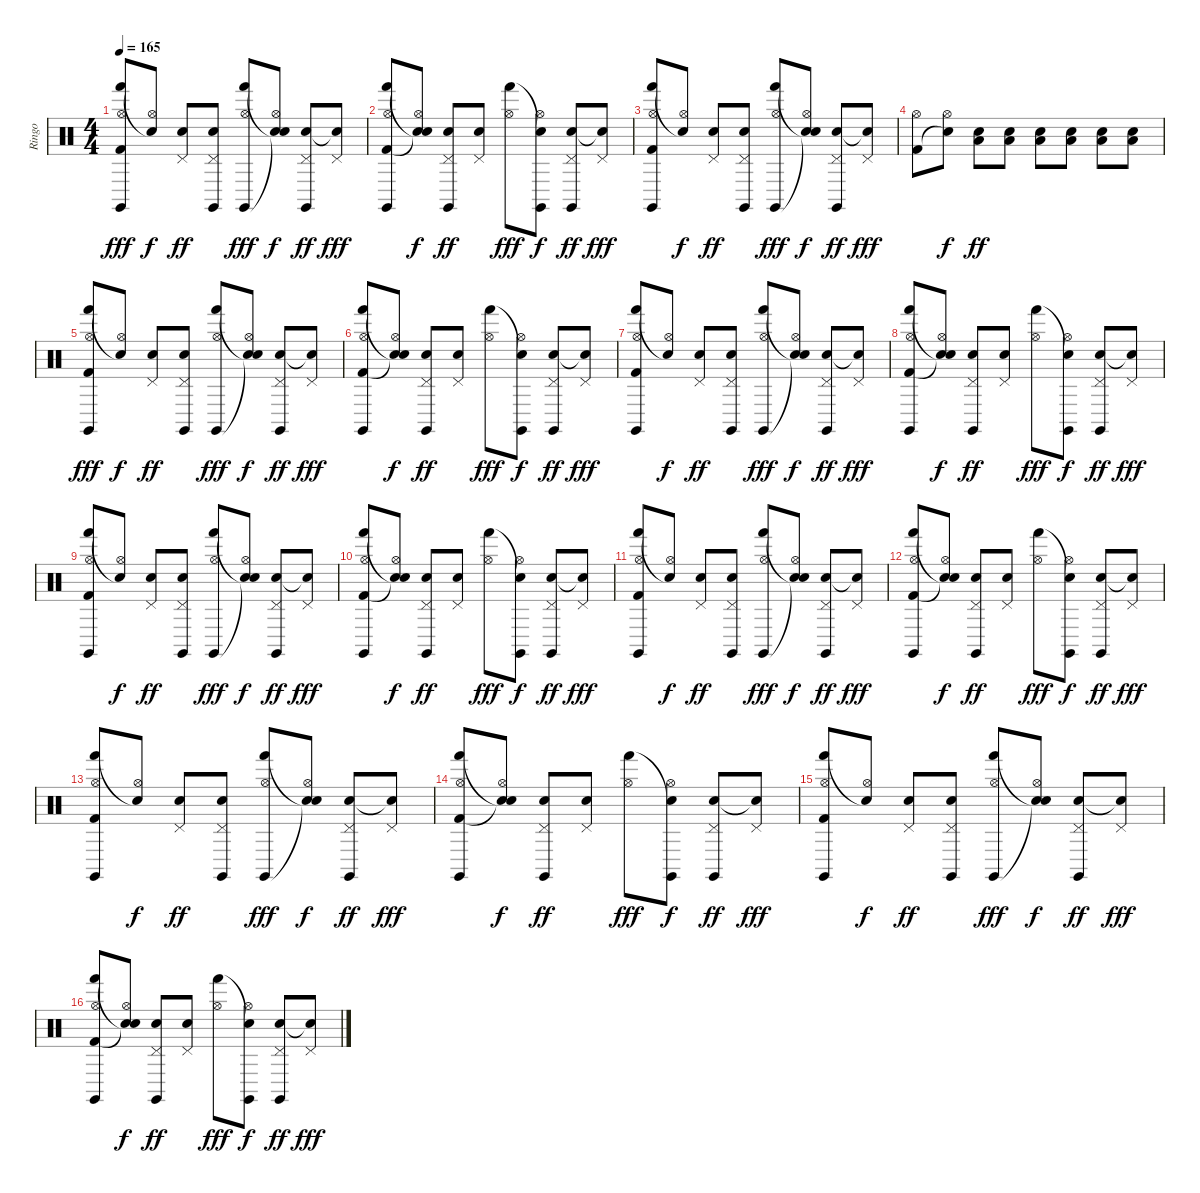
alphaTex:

\track ("Ringo" "Ringo") {instrument percussion}
\staff {score}
\articulation defaults
\ts (4 4)
\tempo 165
\clef neutral
\ks c
("Hand (hit)" "Hi-Hat (open)" "Kick (hit) 2" "Claves (hit)").8{dy fff} ("Snare (hit)"{t} "Hi-Hat (open)").8{dy f} ("Pedal Hi-Hat (hit)" "Snare (hit) 2").8{dy ff} ("Pedal Hi-Hat (hit)" "Snare (hit) 2" "Claves (hit)").8 ("Hand (hit)" "Hi-Hat (open)" "Claves (hit)").8{dy fff} ("Snare (hit)"{t} "Hi-Hat (open)" "Snare (hit)"{t}).8{dy f} ("Pedal Hi-Hat (hit)" "Snare (hit) 2" "Claves (hit)").8{dy ff} ("Pedal Hi-Hat (hit)" "Snare (hit)"{t}).8{dy fff} |
("Hand (hit)" "Hi-Hat (open)" "Kick (hit) 2" "Claves (hit)").8 ("Snare (hit)"{t} "Hi-Hat (open)" "Snare (hit)"{t}).8{dy f} ("Pedal Hi-Hat (hit)" "Snare (hit) 2" "Claves (hit)").8{dy ff} ("Pedal Hi-Hat (hit)" "Snare (hit) 2").8 ("Hand (hit)" "Hi-Hat (open)").8{dy fff} ("Snare (hit)"{t} "Hi-Hat (open)" "Claves (hit)").8{dy f} ("Pedal Hi-Hat (hit)" "Snare (hit) 2" "Claves (hit)").8{dy ff} ("Pedal Hi-Hat (hit)" "Snare (hit)"{t}).8{dy fff} |
("Hand (hit)" "Hi-Hat (open)" "Kick (hit) 2" "Claves (hit)").8 ("Snare (hit)"{t} "Hi-Hat (open)").8{dy f} ("Pedal Hi-Hat (hit)" "Snare (hit) 2").8{dy ff} ("Pedal Hi-Hat (hit)" "Snare (hit) 2" "Claves (hit)").8 ("Hand (hit)" "Hi-Hat (open)" "Claves (hit)").8{dy fff} ("Snare (hit)"{t} "Hi-Hat (open)" "Snare (hit)"{t}).8{dy f} ("Pedal Hi-Hat (hit)" "Snare (hit) 2" "Claves (hit)").8{dy ff} ("Pedal Hi-Hat (hit)" "Snare (hit)"{t}).8{dy fff} |
("Hi-Hat (open)" "Kick (hit) 2").8 ("Hi-Hat (open)" "Snare (hit)"{t}).8{dy f} ("Snare (hit) 2" "Low Tom (hit)").8{dy ff} ("Snare (hit) 2" "Low Tom (hit)").8 ("Snare (hit) 2" "Low Tom (hit)").8 ("Snare (hit) 2" "Low Tom (hit)").8 ("Snare (hit) 2" "Low Tom (hit)").8 ("Snare (hit) 2" "Low Tom (hit)").8 |
("Hand (hit)" "Hi-Hat (open)" "Kick (hit) 2" "Claves (hit)").8{dy fff} ("Snare (hit)"{t} "Hi-Hat (open)").8{dy f} ("Pedal Hi-Hat (hit)" "Snare (hit) 2").8{dy ff} ("Pedal Hi-Hat (hit)" "Snare (hit) 2" "Claves (hit)").8 ("Hand (hit)" "Hi-Hat (open)" "Claves (hit)").8{dy fff} ("Snare (hit)"{t} "Hi-Hat (open)" "Snare (hit)"{t}).8{dy f} ("Pedal Hi-Hat (hit)" "Snare (hit) 2" "Claves (hit)").8{dy ff} ("Pedal Hi-Hat (hit)" "Snare (hit)"{t}).8{dy fff} |
("Hand (hit)" "Hi-Hat (open)" "Kick (hit) 2" "Claves (hit)").8 ("Snare (hit)"{t} "Hi-Hat (open)" "Snare (hit)"{t}).8{dy f} ("Pedal Hi-Hat (hit)" "Snare (hit) 2" "Claves (hit)").8{dy ff} ("Pedal Hi-Hat (hit)" "Snare (hit) 2").8 ("Hand (hit)" "Hi-Hat (open)").8{dy fff} ("Snare (hit)"{t} "Hi-Hat (open)" "Claves (hit)").8{dy f} ("Pedal Hi-Hat (hit)" "Snare (hit) 2" "Claves (hit)").8{dy ff} ("Pedal Hi-Hat (hit)" "Snare (hit)"{t}).8{dy fff} |
("Hand (hit)" "Hi-Hat (open)" "Kick (hit) 2" "Claves (hit)").8 ("Snare (hit)"{t} "Hi-Hat (open)").8{dy f} ("Pedal Hi-Hat (hit)" "Snare (hit) 2").8{dy ff} ("Pedal Hi-Hat (hit)" "Snare (hit) 2" "Claves (hit)").8 ("Hand (hit)" "Hi-Hat (open)" "Claves (hit)").8{dy fff} ("Snare (hit)"{t} "Hi-Hat (open)" "Snare (hit)"{t}).8{dy f} ("Pedal Hi-Hat (hit)" "Snare (hit) 2" "Claves (hit)").8{dy ff} ("Pedal Hi-Hat (hit)" "Snare (hit)"{t}).8{dy fff} |
("Hand (hit)" "Hi-Hat (open)" "Kick (hit) 2" "Claves (hit)").8 ("Snare (hit)"{t} "Hi-Hat (open)" "Snare (hit)"{t}).8{dy f} ("Pedal Hi-Hat (hit)" "Snare (hit) 2" "Claves (hit)").8{dy ff} ("Pedal Hi-Hat (hit)" "Snare (hit) 2").8 ("Hand (hit)" "Hi-Hat (open)").8{dy fff} ("Snare (hit)"{t} "Hi-Hat (open)" "Claves (hit)").8{dy f} ("Pedal Hi-Hat (hit)" "Snare (hit) 2" "Claves (hit)").8{dy ff} ("Pedal Hi-Hat (hit)" "Snare (hit)"{t}).8{dy fff} |
("Hand (hit)" "Hi-Hat (open)" "Kick (hit) 2" "Claves (hit)").8 ("Snare (hit)"{t} "Hi-Hat (open)").8{dy f} ("Pedal Hi-Hat (hit)" "Snare (hit) 2").8{dy ff} ("Pedal Hi-Hat (hit)" "Snare (hit) 2" "Claves (hit)").8 ("Hand (hit)" "Hi-Hat (open)" "Claves (hit)").8{dy fff} ("Snare (hit)"{t} "Hi-Hat (open)" "Snare (hit)"{t}).8{dy f} ("Pedal Hi-Hat (hit)" "Snare (hit) 2" "Claves (hit)").8{dy ff} ("Pedal Hi-Hat (hit)" "Snare (hit)"{t}).8{dy fff} |
("Hand (hit)" "Hi-Hat (open)" "Kick (hit) 2" "Claves (hit)").8 ("Snare (hit)"{t} "Hi-Hat (open)" "Snare (hit)"{t}).8{dy f} ("Pedal Hi-Hat (hit)" "Snare (hit) 2" "Claves (hit)").8{dy ff} ("Pedal Hi-Hat (hit)" "Snare (hit) 2").8 ("Hand (hit)" "Hi-Hat (open)").8{dy fff} ("Snare (hit)"{t} "Hi-Hat (open)" "Claves (hit)").8{dy f} ("Pedal Hi-Hat (hit)" "Snare (hit) 2" "Claves (hit)").8{dy ff} ("Pedal Hi-Hat (hit)" "Snare (hit)"{t}).8{dy fff} |
("Hand (hit)" "Hi-Hat (open)" "Kick (hit) 2" "Claves (hit)").8 ("Snare (hit)"{t} "Hi-Hat (open)").8{dy f} ("Pedal Hi-Hat (hit)" "Snare (hit) 2").8{dy ff} ("Pedal Hi-Hat (hit)" "Snare (hit) 2" "Claves (hit)").8 ("Hand (hit)" "Hi-Hat (open)" "Claves (hit)").8{dy fff} ("Snare (hit)"{t} "Hi-Hat (open)" "Snare (hit)"{t}).8{dy f} ("Pedal Hi-Hat (hit)" "Snare (hit) 2" "Claves (hit)").8{dy ff} ("Pedal Hi-Hat (hit)" "Snare (hit)"{t}).8{dy fff} |
("Hand (hit)" "Hi-Hat (open)" "Kick (hit) 2" "Claves (hit)").8 ("Snare (hit)"{t} "Hi-Hat (open)" "Snare (hit)"{t}).8{dy f} ("Pedal Hi-Hat (hit)" "Snare (hit) 2" "Claves (hit)").8{dy ff} ("Pedal Hi-Hat (hit)" "Snare (hit) 2").8 ("Hand (hit)" "Hi-Hat (open)").8{dy fff} ("Snare (hit)"{t} "Hi-Hat (open)" "Claves (hit)").8{dy f} ("Pedal Hi-Hat (hit)" "Snare (hit) 2" "Claves (hit)").8{dy ff} ("Pedal Hi-Hat (hit)" "Snare (hit)"{t}).8{dy fff} |
("Hand (hit)" "Hi-Hat (open)" "Kick (hit) 2" "Claves (hit)").8 ("Snare (hit)"{t} "Hi-Hat (open)").8{dy f} ("Pedal Hi-Hat (hit)" "Snare (hit) 2").8{dy ff} ("Pedal Hi-Hat (hit)" "Snare (hit) 2" "Claves (hit)").8 ("Hand (hit)" "Hi-Hat (open)" "Claves (hit)").8{dy fff} ("Snare (hit)"{t} "Hi-Hat (open)" "Snare (hit)"{t}).8{dy f} ("Pedal Hi-Hat (hit)" "Snare (hit) 2" "Claves (hit)").8{dy ff} ("Pedal Hi-Hat (hit)" "Snare (hit)"{t}).8{dy fff} |
("Hand (hit)" "Hi-Hat (open)" "Kick (hit) 2" "Claves (hit)").8 ("Snare (hit)"{t} "Hi-Hat (open)" "Snare (hit)"{t}).8{dy f} ("Pedal Hi-Hat (hit)" "Snare (hit) 2" "Claves (hit)").8{dy ff} ("Pedal Hi-Hat (hit)" "Snare (hit) 2").8 ("Hand (hit)" "Hi-Hat (open)").8{dy fff} ("Snare (hit)"{t} "Hi-Hat (open)" "Claves (hit)").8{dy f} ("Pedal Hi-Hat (hit)" "Snare (hit) 2" "Claves (hit)").8{dy ff} ("Pedal Hi-Hat (hit)" "Snare (hit)"{t}).8{dy fff} |
("Hand (hit)" "Hi-Hat (open)" "Kick (hit) 2" "Claves (hit)").8 ("Snare (hit)"{t} "Hi-Hat (open)").8{dy f} ("Pedal Hi-Hat (hit)" "Snare (hit) 2").8{dy ff} ("Pedal Hi-Hat (hit)" "Snare (hit) 2" "Claves (hit)").8 ("Hand (hit)" "Hi-Hat (open)" "Claves (hit)").8{dy fff} ("Snare (hit)"{t} "Hi-Hat (open)" "Snare (hit)"{t}).8{dy f} ("Pedal Hi-Hat (hit)" "Snare (hit) 2" "Claves (hit)").8{dy ff} ("Pedal Hi-Hat (hit)" "Snare (hit)"{t}).8{dy fff} |
("Hand (hit)" "Hi-Hat (open)" "Kick (hit) 2" "Claves (hit)").8 ("Snare (hit)"{t} "Hi-Hat (open)" "Snare (hit)"{t}).8{dy f} ("Pedal Hi-Hat (hit)" "Snare (hit) 2" "Claves (hit)").8{dy ff} ("Pedal Hi-Hat (hit)" "Snare (hit) 2").8 ("Hand (hit)" "Hi-Hat (open)").8{dy fff} ("Snare (hit)"{t} "Hi-Hat (open)" "Claves (hit)").8{dy f} ("Pedal Hi-Hat (hit)" "Snare (hit) 2" "Claves (hit)").8{dy ff} ("Pedal Hi-Hat (hit)" "Snare (hit)"{t}).8{dy fff}
